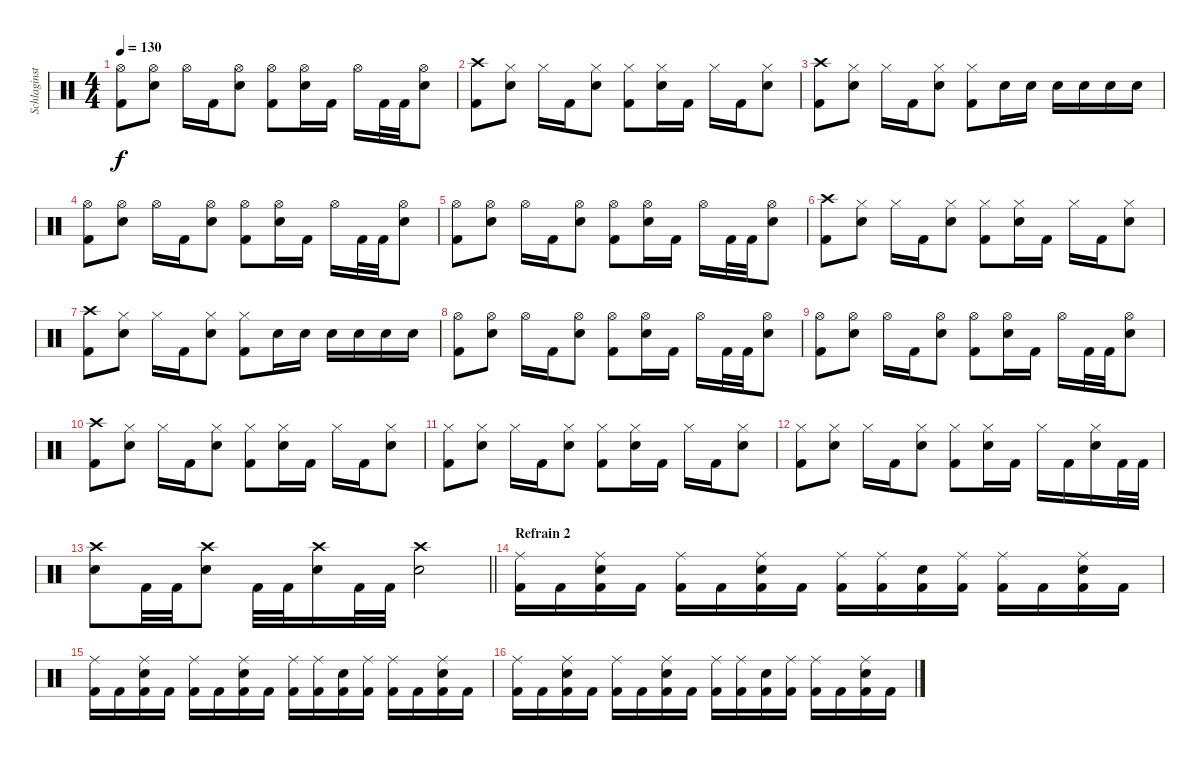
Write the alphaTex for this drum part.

\track ("Schlaginstrumente - Auswahl" "Schlaginst") {instrument percussion}
\staff {score}
\articulation defaults
\ts (4 4)
\tempo 130
\clef neutral
\ks c
("Hi-Hat (open)" "Kick (hit) 2").8{dy f} ("Hi-Hat (open)" "Snare (hit) 2").8 "Hi-Hat (open)".16 "Kick (hit) 2".16 ("Hi-Hat (open)" "Snare (hit) 2").8 ("Hi-Hat (open)" "Kick (hit) 2").8 ("Hi-Hat (open)" "Snare (hit) 2").16 "Kick (hit) 2".16 "Hi-Hat (open)".16 "Kick (hit) 2".32 "Kick (hit) 2".32 ("Hi-Hat (open)" "Snare (hit) 2").8 |
("Crash high (hit)" "Kick (hit) 2").8 ("Hi-Hat (closed)" "Snare (hit) 2").8 "Hi-Hat (closed)".16 "Kick (hit) 2".16 ("Hi-Hat (closed)" "Snare (hit) 2").8 ("Hi-Hat (closed)" "Kick (hit) 2").8 ("Hi-Hat (closed)" "Snare (hit) 2").16 "Kick (hit) 2".16 "Hi-Hat (closed)".16 "Kick (hit) 2".16 ("Hi-Hat (closed)" "Snare (hit) 2").8 |
("Crash high (hit)" "Kick (hit) 2").8 ("Hi-Hat (closed)" "Snare (hit) 2").8 "Hi-Hat (closed)".16 "Kick (hit) 2".16 ("Hi-Hat (closed)" "Snare (hit) 2").8 ("Hi-Hat (closed)" "Kick (hit) 2").8 "Snare (hit) 2".16 "Snare (hit) 2".16 "Snare (hit) 2".16 "Snare (hit) 2".16 "Snare (hit) 2".16 "Snare (hit) 2".16 |
("Hi-Hat (open)" "Kick (hit) 2").8 ("Hi-Hat (open)" "Snare (hit) 2").8 "Hi-Hat (open)".16 "Kick (hit) 2".16 ("Hi-Hat (open)" "Snare (hit) 2").8 ("Hi-Hat (open)" "Kick (hit) 2").8 ("Hi-Hat (open)" "Snare (hit) 2").16 "Kick (hit) 2".16 "Hi-Hat (open)".16 "Kick (hit) 2".32 "Kick (hit) 2".32 ("Hi-Hat (open)" "Snare (hit) 2").8 |
("Hi-Hat (open)" "Kick (hit) 2").8 ("Hi-Hat (open)" "Snare (hit) 2").8 "Hi-Hat (open)".16 "Kick (hit) 2".16 ("Hi-Hat (open)" "Snare (hit) 2").8 ("Hi-Hat (open)" "Kick (hit) 2").8 ("Hi-Hat (open)" "Snare (hit) 2").16 "Kick (hit) 2".16 "Hi-Hat (open)".16 "Kick (hit) 2".32 "Kick (hit) 2".32 ("Hi-Hat (open)" "Snare (hit) 2").8 |
("Crash high (hit)" "Kick (hit) 2").8 ("Hi-Hat (closed)" "Snare (hit) 2").8 "Hi-Hat (closed)".16 "Kick (hit) 2".16 ("Hi-Hat (closed)" "Snare (hit) 2").8 ("Hi-Hat (closed)" "Kick (hit) 2").8 ("Hi-Hat (closed)" "Snare (hit) 2").16 "Kick (hit) 2".16 "Hi-Hat (closed)".16 "Kick (hit) 2".16 ("Hi-Hat (closed)" "Snare (hit) 2").8 |
("Crash high (hit)" "Kick (hit) 2").8 ("Hi-Hat (closed)" "Snare (hit) 2").8 "Hi-Hat (closed)".16 "Kick (hit) 2".16 ("Hi-Hat (closed)" "Snare (hit) 2").8 ("Hi-Hat (closed)" "Kick (hit) 2").8 "Snare (hit) 2".16 "Snare (hit) 2".16 "Snare (hit) 2".16 "Snare (hit) 2".16 "Snare (hit) 2".16 "Snare (hit) 2".16 |
("Hi-Hat (open)" "Kick (hit) 2").8 ("Hi-Hat (open)" "Snare (hit) 2").8 "Hi-Hat (open)".16 "Kick (hit) 2".16 ("Hi-Hat (open)" "Snare (hit) 2").8 ("Hi-Hat (open)" "Kick (hit) 2").8 ("Hi-Hat (open)" "Snare (hit) 2").16 "Kick (hit) 2".16 "Hi-Hat (open)".16 "Kick (hit) 2".32 "Kick (hit) 2".32 ("Hi-Hat (open)" "Snare (hit) 2").8 |
("Hi-Hat (open)" "Kick (hit) 2").8 ("Hi-Hat (open)" "Snare (hit) 2").8 "Hi-Hat (open)".16 "Kick (hit) 2".16 ("Hi-Hat (open)" "Snare (hit) 2").8 ("Hi-Hat (open)" "Kick (hit) 2").8 ("Hi-Hat (open)" "Snare (hit) 2").16 "Kick (hit) 2".16 "Hi-Hat (open)".16 "Kick (hit) 2".32 "Kick (hit) 2".32 ("Hi-Hat (open)" "Snare (hit) 2").8 |
("Crash high (hit)" "Kick (hit) 2").8 ("Hi-Hat (closed)" "Snare (hit) 2").8 "Hi-Hat (closed)".16 "Kick (hit) 2".16 ("Hi-Hat (closed)" "Snare (hit) 2").8 ("Hi-Hat (closed)" "Kick (hit) 2").8 ("Hi-Hat (closed)" "Snare (hit) 2").16 "Kick (hit) 2".16 "Hi-Hat (closed)".16 "Kick (hit) 2".16 ("Hi-Hat (closed)" "Snare (hit) 2").8 |
("Hi-Hat (closed)" "Kick (hit) 2").8 ("Hi-Hat (closed)" "Snare (hit) 2").8 "Hi-Hat (closed)".16 "Kick (hit) 2".16 ("Hi-Hat (closed)" "Snare (hit) 2").8 ("Hi-Hat (closed)" "Kick (hit) 2").8 ("Hi-Hat (closed)" "Snare (hit) 2").16 "Kick (hit) 2".16 "Hi-Hat (closed)".16 "Kick (hit) 2".16 ("Hi-Hat (closed)" "Snare (hit) 2").8 |
("Hi-Hat (closed)" "Kick (hit) 2").8 ("Hi-Hat (closed)" "Snare (hit) 2").8 "Hi-Hat (closed)".16 "Kick (hit) 2".16 ("Hi-Hat (closed)" "Snare (hit) 2").8 ("Hi-Hat (closed)" "Kick (hit) 2").8 ("Hi-Hat (closed)" "Snare (hit) 2").16 "Kick (hit) 2".16 "Hi-Hat (closed)".16 "Kick (hit) 2".16 ("Hi-Hat (closed)" "Snare (hit) 2").16 "Kick (hit) 2".32 "Kick (hit) 2".32 |
\barLineRight lightlight
("Crash high (hit)" "Snare (hit) 2").8 "Kick (hit) 2".32 "Kick (hit) 2".32 ("Crash high (hit)" "Snare (hit) 2").8 "Kick (hit) 2".32 "Kick (hit) 2".32 ("Crash high (hit)" "Snare (hit) 2").16 "Kick (hit) 2".32 "Kick (hit) 2".32 ("Crash high (hit)" "Snare (hit) 2").2 |
\section ("" "Refrain 2")
("Ride (middle)" "Kick (hit) 2").16 "Kick (hit) 2".16 ("Ride (middle)" "Snare (hit) 2" "Kick (hit) 2").16 "Kick (hit) 2".16 ("Ride (middle)" "Kick (hit) 2").16 "Kick (hit) 2".16 ("Ride (middle)" "Snare (hit) 2" "Kick (hit) 2").16 "Kick (hit) 2".16 ("Ride (middle)" "Kick (hit) 2").16 ("Ride (middle)" "Kick (hit) 2").16 ("Snare (hit) 2" "Kick (hit) 2").16 ("Ride (middle)" "Kick (hit) 2").16 ("Ride (middle)" "Kick (hit) 2").16 "Kick (hit) 2".16 ("Ride (middle)" "Snare (hit) 2" "Kick (hit) 2").16 "Kick (hit) 2".16 |
("Ride (middle)" "Kick (hit) 2").16 "Kick (hit) 2".16 ("Ride (middle)" "Snare (hit) 2" "Kick (hit) 2").16 "Kick (hit) 2".16 ("Ride (middle)" "Kick (hit) 2").16 "Kick (hit) 2".16 ("Ride (middle)" "Snare (hit) 2" "Kick (hit) 2").16 "Kick (hit) 2".16 ("Ride (middle)" "Kick (hit) 2").16 ("Ride (middle)" "Kick (hit) 2").16 ("Snare (hit) 2" "Kick (hit) 2").16 ("Ride (middle)" "Kick (hit) 2").16 ("Ride (middle)" "Kick (hit) 2").16 "Kick (hit) 2".16 ("Ride (middle)" "Snare (hit) 2" "Kick (hit) 2").16 "Kick (hit) 2".16 |
("Ride (middle)" "Kick (hit) 2").16 "Kick (hit) 2".16 ("Ride (middle)" "Snare (hit) 2" "Kick (hit) 2").16 "Kick (hit) 2".16 ("Ride (middle)" "Kick (hit) 2").16 "Kick (hit) 2".16 ("Ride (middle)" "Snare (hit) 2" "Kick (hit) 2").16 "Kick (hit) 2".16 ("Ride (middle)" "Kick (hit) 2").16 ("Ride (middle)" "Kick (hit) 2").16 ("Snare (hit) 2" "Kick (hit) 2").16 ("Ride (middle)" "Kick (hit) 2").16 ("Ride (middle)" "Kick (hit) 2").16 "Kick (hit) 2".16 ("Ride (middle)" "Snare (hit) 2" "Kick (hit) 2").16 "Kick (hit) 2".16
